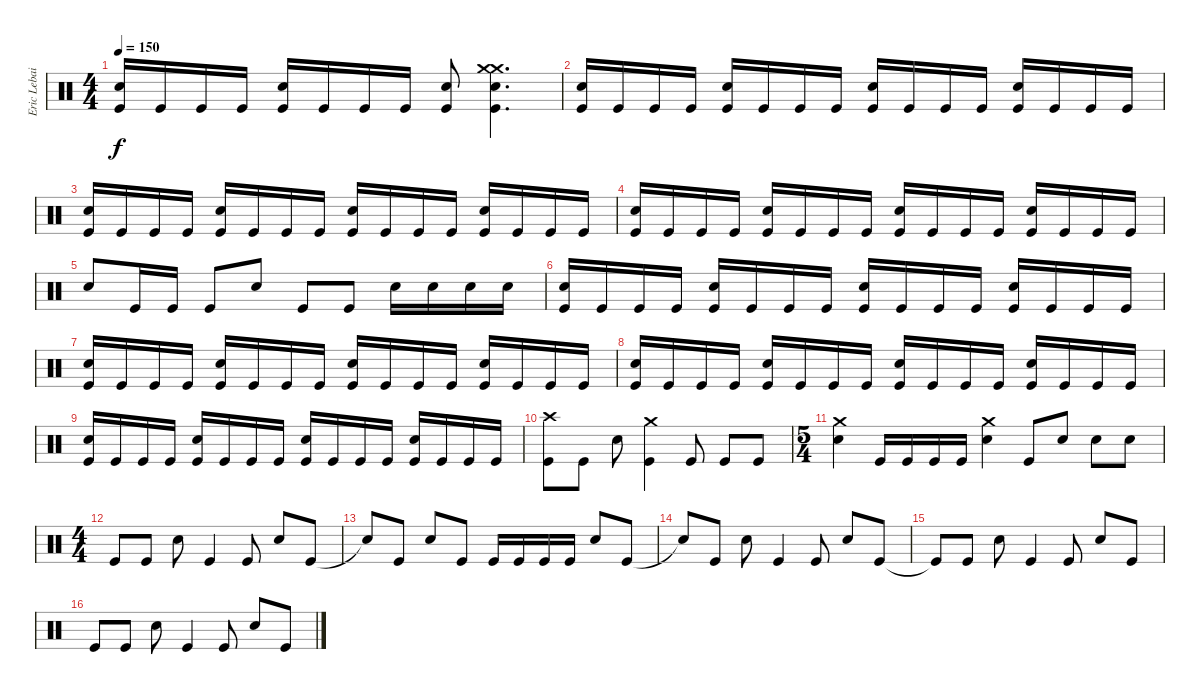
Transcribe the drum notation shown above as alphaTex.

\track ("Eric Lebailly - Drums" "Eric Lebai") {instrument percussion}
\staff {score}
\articulation defaults
\ts (4 4)
\tempo 150
\clef neutral
\ks c
("Snare (hit) 2" "Kick (hit)").16{dy f} "Kick (hit)".16 "Kick (hit)".16 "Kick (hit)".16 ("Snare (hit) 2" "Kick (hit)").16 "Kick (hit)".16 "Kick (hit)".16 "Kick (hit)".16 ("Snare (hit) 2" "Kick (hit)").8 ("Crash medium (hit)" "Crash medium (hit)" "Snare (hit) 2" "Kick (hit)").4{d} |
("Snare (hit) 2" "Kick (hit)").16 "Kick (hit)".16 "Kick (hit)".16 "Kick (hit)".16 ("Snare (hit) 2" "Kick (hit)").16 "Kick (hit)".16 "Kick (hit)".16 "Kick (hit)".16 ("Snare (hit) 2" "Kick (hit)").16 "Kick (hit)".16 "Kick (hit)".16 "Kick (hit)".16 ("Snare (hit) 2" "Kick (hit)").16 "Kick (hit)".16 "Kick (hit)".16 "Kick (hit)".16 |
("Snare (hit) 2" "Kick (hit)").16 "Kick (hit)".16 "Kick (hit)".16 "Kick (hit)".16 ("Snare (hit) 2" "Kick (hit)").16 "Kick (hit)".16 "Kick (hit)".16 "Kick (hit)".16 ("Snare (hit) 2" "Kick (hit)").16 "Kick (hit)".16 "Kick (hit)".16 "Kick (hit)".16 ("Snare (hit) 2" "Kick (hit)").16 "Kick (hit)".16 "Kick (hit)".16 "Kick (hit)".16 |
("Snare (hit) 2" "Kick (hit)").16 "Kick (hit)".16 "Kick (hit)".16 "Kick (hit)".16 ("Snare (hit) 2" "Kick (hit)").16 "Kick (hit)".16 "Kick (hit)".16 "Kick (hit)".16 ("Snare (hit) 2" "Kick (hit)").16 "Kick (hit)".16 "Kick (hit)".16 "Kick (hit)".16 ("Snare (hit) 2" "Kick (hit)").16 "Kick (hit)".16 "Kick (hit)".16 "Kick (hit)".16 |
"Snare (hit) 2".8 "Kick (hit)".16 "Kick (hit)".16 "Kick (hit)".8 "Snare (hit) 2".8 "Kick (hit)".8 "Kick (hit)".8 "Snare (hit) 2".16 "Snare (hit) 2".16 "Snare (hit) 2".16 "Snare (hit) 2".16 |
("Snare (hit) 2" "Kick (hit)").16 "Kick (hit)".16 "Kick (hit)".16 "Kick (hit)".16 ("Snare (hit) 2" "Kick (hit)").16 "Kick (hit)".16 "Kick (hit)".16 "Kick (hit)".16 ("Snare (hit) 2" "Kick (hit)").16 "Kick (hit)".16 "Kick (hit)".16 "Kick (hit)".16 ("Snare (hit) 2" "Kick (hit)").16 "Kick (hit)".16 "Kick (hit)".16 "Kick (hit)".16 |
("Snare (hit) 2" "Kick (hit)").16 "Kick (hit)".16 "Kick (hit)".16 "Kick (hit)".16 ("Snare (hit) 2" "Kick (hit)").16 "Kick (hit)".16 "Kick (hit)".16 "Kick (hit)".16 ("Snare (hit) 2" "Kick (hit)").16 "Kick (hit)".16 "Kick (hit)".16 "Kick (hit)".16 ("Snare (hit) 2" "Kick (hit)").16 "Kick (hit)".16 "Kick (hit)".16 "Kick (hit)".16 |
("Snare (hit) 2" "Kick (hit)").16 "Kick (hit)".16 "Kick (hit)".16 "Kick (hit)".16 ("Snare (hit) 2" "Kick (hit)").16 "Kick (hit)".16 "Kick (hit)".16 "Kick (hit)".16 ("Snare (hit) 2" "Kick (hit)").16 "Kick (hit)".16 "Kick (hit)".16 "Kick (hit)".16 ("Snare (hit) 2" "Kick (hit)").16 "Kick (hit)".16 "Kick (hit)".16 "Kick (hit)".16 |
("Snare (hit) 2" "Kick (hit)").16 "Kick (hit)".16 "Kick (hit)".16 "Kick (hit)".16 ("Snare (hit) 2" "Kick (hit)").16 "Kick (hit)".16 "Kick (hit)".16 "Kick (hit)".16 ("Snare (hit) 2" "Kick (hit)").16 "Kick (hit)".16 "Kick (hit)".16 "Kick (hit)".16 ("Snare (hit) 2" "Kick (hit)").16 "Kick (hit)".16 "Kick (hit)".16 "Kick (hit)".16 |
("Crash high (hit)" "Kick (hit)").8 "Kick (hit)".8 "Snare (hit) 2".8 ("Crash medium (hit)" "Kick (hit)").4 "Kick (hit)".8 "Kick (hit)".8 "Kick (hit)".8 |
\ts (5 4)
("Crash medium (hit)" "Snare (hit) 2").4 "Kick (hit)".16 "Kick (hit)".16 "Kick (hit)".16 "Kick (hit)".16 ("Crash medium (hit)" "Snare (hit) 2").4 "Kick (hit)".8 "Snare (hit) 2".8 "Snare (hit) 2".8 "Snare (hit) 2".8 |
\ts (4 4)
"Kick (hit)".8 "Kick (hit)".8 "Snare (hit) 2".8 "Kick (hit)".4 "Kick (hit)".8 "Snare (hit) 2".8 "Kick (hit)".8 |
"Snare (hit)"{t}.8 "Kick (hit)".8 "Snare (hit) 2".8 "Kick (hit)".8 "Kick (hit)".16 "Kick (hit)".16 "Kick (hit)".16 "Kick (hit)".16 "Snare (hit) 2".8 "Kick (hit)".8 |
"Snare (hit)"{t}.8 "Kick (hit)".8 "Snare (hit) 2".8 "Kick (hit)".4 "Kick (hit)".8 "Snare (hit) 2".8 "Kick (hit)".8 |
"Kick (hit)"{t}.8 "Kick (hit)".8 "Snare (hit) 2".8 "Kick (hit)".4 "Kick (hit)".8 "Snare (hit) 2".8 "Kick (hit)".8 |
"Kick (hit)".8 "Kick (hit)".8 "Snare (hit) 2".8 "Kick (hit)".4 "Kick (hit)".8 "Snare (hit) 2".8 "Kick (hit)".8
